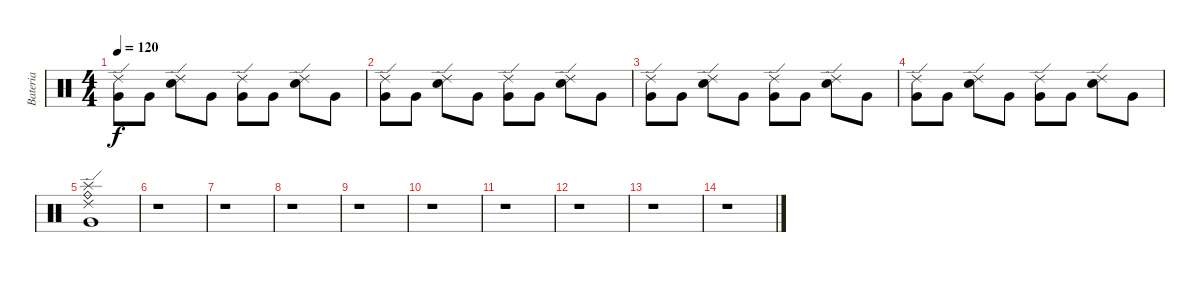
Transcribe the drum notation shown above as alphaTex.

\track ("Bateria" "Bateria") {instrument percussion}
\staff {score}
\articulation defaults
\ts (4 4)
\tempo 120
\clef neutral
\ks c
("Ride (edge) 2" "Very Low Tom (hit)").8{dy f} "Very Low Tom (hit)".8 ("Snare (hit) 2" "Ride (edge) 2").8 "Very Low Tom (hit)".8 ("Very Low Tom (hit)" "Ride (edge) 2").8 "Very Low Tom (hit)".8 ("Snare (hit) 2" "Ride (edge) 2").8 "Very Low Tom (hit)".8 |
("Ride (edge) 2" "Very Low Tom (hit)").8 "Very Low Tom (hit)".8 ("Snare (hit) 2" "Ride (edge) 2").8 "Very Low Tom (hit)".8 ("Very Low Tom (hit)" "Ride (edge) 2").8 "Very Low Tom (hit)".8 ("Snare (hit) 2" "Ride (edge) 2").8 "Very Low Tom (hit)".8 |
("Ride (edge) 2" "Very Low Tom (hit)").8 "Very Low Tom (hit)".8 ("Snare (hit) 2" "Ride (edge) 2").8 "Very Low Tom (hit)".8 ("Very Low Tom (hit)" "Ride (edge) 2").8 "Very Low Tom (hit)".8 ("Snare (hit) 2" "Ride (edge) 2").8 "Very Low Tom (hit)".8 |
("Ride (edge) 2" "Very Low Tom (hit)").8 "Very Low Tom (hit)".8 ("Snare (hit) 2" "Ride (edge) 2").8 "Very Low Tom (hit)".8 ("Very Low Tom (hit)" "Ride (edge) 2").8 "Very Low Tom (hit)".8 ("Snare (hit) 2" "Ride (edge) 2").8 "Very Low Tom (hit)".8 |
("Ride (edge) 2" "Ride (bell)" "Very Low Tom (hit)" "Splash (hit)").1 |
r.1 |
r.1 |
r.1 |
r.1 |
r.1 |
r.1 |
r.1 |
r.1 |
r.1
